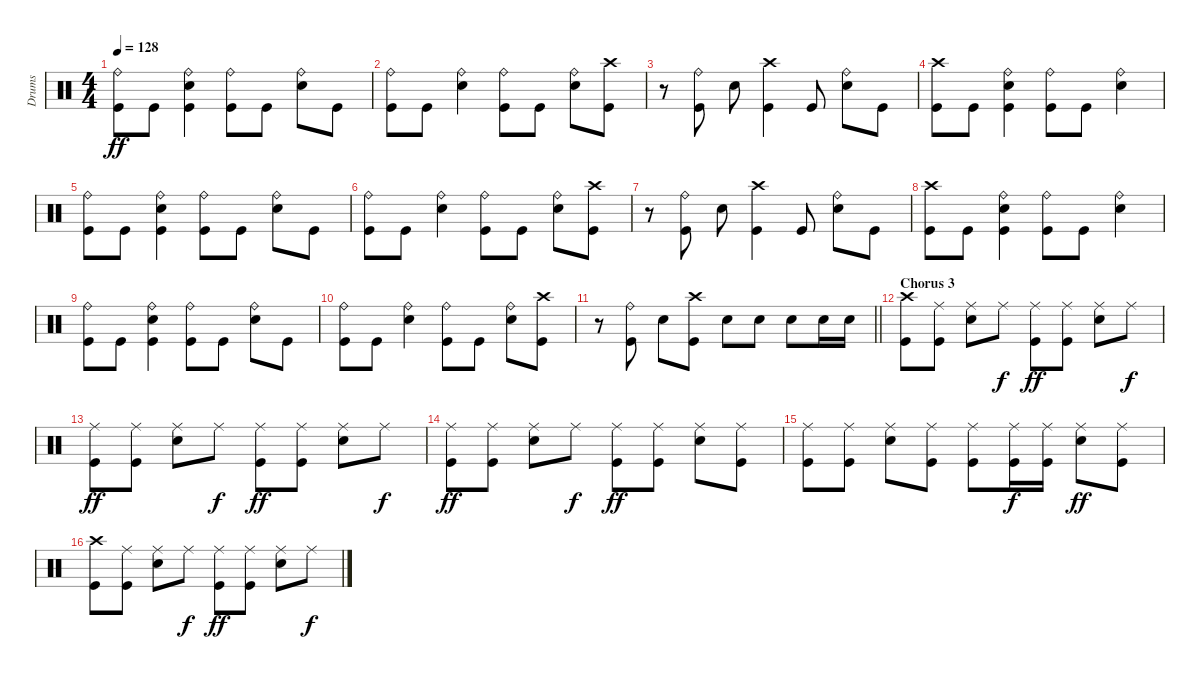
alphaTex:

\track ("Drums" "Drums") {instrument percussion}
\staff {score}
\articulation defaults
\ts (4 4)
\tempo 128
\clef neutral
\ks c
("Ride (bell)" "Kick (hit)").8{dy ff} "Kick (hit)".8 ("Ride (bell)" "Electric Snare (hit)" "Kick (hit)").4 ("Ride (bell)" "Kick (hit)").8 "Kick (hit)".8 ("Ride (bell)" "Electric Snare (hit)").8 "Kick (hit)".8 |
("Ride (bell)" "Kick (hit)").8 "Kick (hit)".8 ("Ride (bell)" "Electric Snare (hit)").4 ("Ride (bell)" "Kick (hit)").8 "Kick (hit)".8 ("Ride (bell)" "Electric Snare (hit)").8 ("Crash high (hit)" "Kick (hit)").8 |
r.8 ("Ride (bell)" "Kick (hit)").8 "Electric Snare (hit)".8 ("Crash high (hit)" "Kick (hit)").4 "Kick (hit)".8 ("Ride (bell)" "Electric Snare (hit)").8 "Kick (hit)".8 |
("Crash high (hit)" "Kick (hit)").8 "Kick (hit)".8 ("Ride (bell)" "Electric Snare (hit)" "Kick (hit)").4 ("Ride (bell)" "Kick (hit)").8 "Kick (hit)".8 ("Ride (bell)" "Electric Snare (hit)").4 |
("Ride (bell)" "Kick (hit)").8 "Kick (hit)".8 ("Ride (bell)" "Electric Snare (hit)" "Kick (hit)").4 ("Ride (bell)" "Kick (hit)").8 "Kick (hit)".8 ("Ride (bell)" "Electric Snare (hit)").8 "Kick (hit)".8 |
("Ride (bell)" "Kick (hit)").8 "Kick (hit)".8 ("Ride (bell)" "Electric Snare (hit)").4 ("Ride (bell)" "Kick (hit)").8 "Kick (hit)".8 ("Ride (bell)" "Electric Snare (hit)").8 ("Crash high (hit)" "Kick (hit)").8 |
r.8 ("Ride (bell)" "Kick (hit)").8 "Electric Snare (hit)".8 ("Crash high (hit)" "Kick (hit)").4 "Kick (hit)".8 ("Ride (bell)" "Electric Snare (hit)").8 "Kick (hit)".8 |
("Crash high (hit)" "Kick (hit)").8 "Kick (hit)".8 ("Ride (bell)" "Electric Snare (hit)" "Kick (hit)").4 ("Ride (bell)" "Kick (hit)").8 "Kick (hit)".8 ("Ride (bell)" "Electric Snare (hit)").4 |
("Ride (bell)" "Kick (hit)").8 "Kick (hit)".8 ("Ride (bell)" "Electric Snare (hit)" "Kick (hit)").4 ("Ride (bell)" "Kick (hit)").8 "Kick (hit)".8 ("Ride (bell)" "Electric Snare (hit)").8 "Kick (hit)".8 |
("Ride (bell)" "Kick (hit)").8 "Kick (hit)".8 ("Ride (bell)" "Electric Snare (hit)").4 ("Ride (bell)" "Kick (hit)").8 "Kick (hit)".8 ("Ride (bell)" "Electric Snare (hit)").8 ("Crash high (hit)" "Kick (hit)").8 |
\barLineRight lightlight
r.8 ("Ride (bell)" "Kick (hit)").8 "Electric Snare (hit)".8 ("Crash high (hit)" "Kick (hit)").8 "Electric Snare (hit)".8 "Electric Snare (hit)".8 "Electric Snare (hit)".8 "Electric Snare (hit)".16 "Electric Snare (hit)".16 |
\section ("" "Chorus 3")
("Crash high (hit)" "Kick (hit)").8 ("Ride (middle)" "Kick (hit)").8 ("Ride (middle)" "Electric Snare (hit)").8 "Ride (middle)".8{dy f} ("Ride (middle)" "Kick (hit)").8{dy ff} ("Ride (middle)" "Kick (hit)").8 ("Ride (middle)" "Electric Snare (hit)").8 "Ride (middle)".8{dy f} |
("Ride (middle)" "Kick (hit)").8{dy ff} ("Ride (middle)" "Kick (hit)").8 ("Ride (middle)" "Electric Snare (hit)").8 "Ride (middle)".8{dy f} ("Ride (middle)" "Kick (hit)").8{dy ff} ("Ride (middle)" "Kick (hit)").8 ("Ride (middle)" "Electric Snare (hit)").8 "Ride (middle)".8{dy f} |
("Ride (middle)" "Kick (hit)").8{dy ff} ("Ride (middle)" "Kick (hit)").8 ("Ride (middle)" "Electric Snare (hit)").8 "Ride (middle)".8{dy f} ("Ride (middle)" "Kick (hit)").8{dy ff} ("Ride (middle)" "Kick (hit)").8 ("Ride (middle)" "Electric Snare (hit)").8 ("Ride (middle)" "Kick (hit)").8 |
("Ride (middle)" "Kick (hit)").8 ("Ride (middle)" "Kick (hit)").8 ("Ride (middle)" "Electric Snare (hit)").8 ("Ride (middle)" "Kick (hit)").8 ("Ride (middle)" "Kick (hit)").8 ("Ride (middle)" "Kick (hit)").16{dy f} ("Ride (middle)" "Kick (hit)").16 ("Ride (middle)" "Electric Snare (hit)").8{dy ff} ("Ride (middle)" "Kick (hit)").8 |
("Crash high (hit)" "Kick (hit)").8 ("Ride (middle)" "Kick (hit)").8 ("Ride (middle)" "Electric Snare (hit)").8 "Ride (middle)".8{dy f} ("Ride (middle)" "Kick (hit)").8{dy ff} ("Ride (middle)" "Kick (hit)").8 ("Ride (middle)" "Electric Snare (hit)").8 "Ride (middle)".8{dy f}
